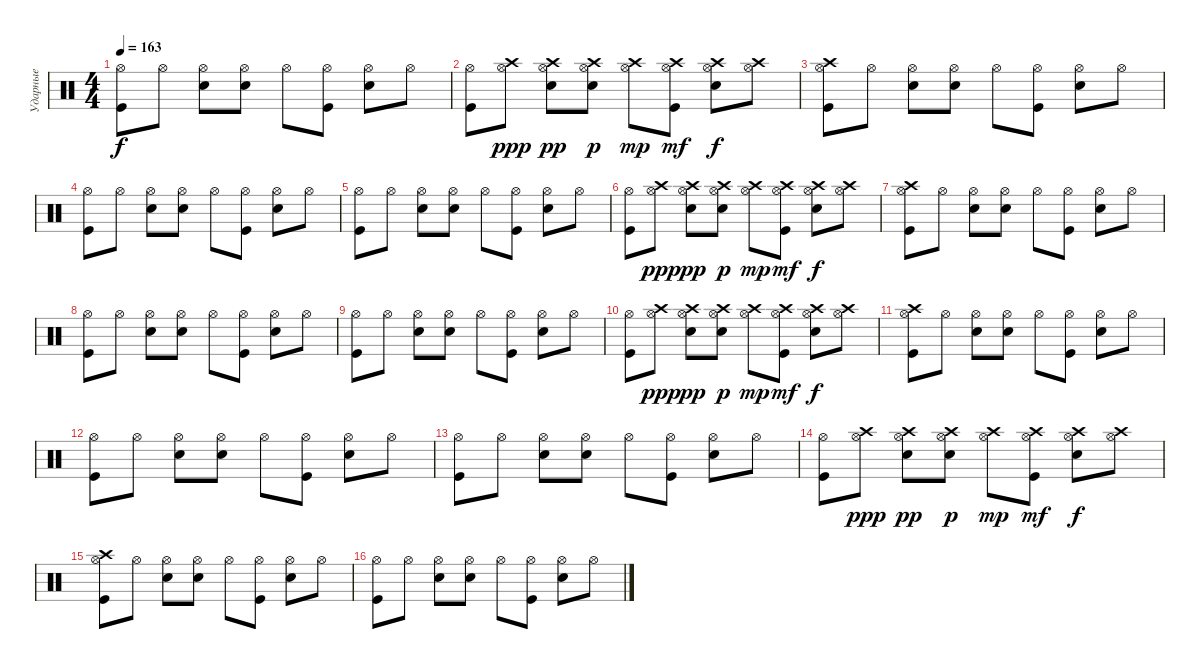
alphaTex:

\track ("Ударные" "Ударные") {instrument percussion}
\staff {score}
\articulation defaults
\ts (4 4)
\tempo 163
\clef neutral
\ks c
("Kick (hit)" "Hi-Hat (open)").8{dy f} "Hi-Hat (open)".8 ("Hi-Hat (open)" "Snare (hit) 2").8 ("Hi-Hat (open)" "Snare (hit) 2").8 "Hi-Hat (open)".8 ("Kick (hit)" "Hi-Hat (open)").8 ("Hi-Hat (open)" "Snare (hit) 2").8 "Hi-Hat (open)".8 |
("Kick (hit)" "Hi-Hat (open)").8 ("Hi-Hat (open)" "Crash high (hit)").8{dy ppp} ("Hi-Hat (open)" "Snare (hit) 2" "Crash high (hit)").8{dy pp} ("Hi-Hat (open)" "Snare (hit) 2" "Crash high (hit)").8{dy p} ("Hi-Hat (open)" "Crash high (hit)").8{dy mp} ("Kick (hit)" "Hi-Hat (open)" "Crash high (hit)").8{dy mf} ("Hi-Hat (open)" "Snare (hit) 2" "Crash high (hit)").8{dy f} ("Hi-Hat (open)" "Crash high (hit)").8 |
("Kick (hit)" "Hi-Hat (open)" "Crash high (hit)").8 "Hi-Hat (open)".8 ("Hi-Hat (open)" "Snare (hit) 2").8 ("Hi-Hat (open)" "Snare (hit) 2").8 "Hi-Hat (open)".8 ("Kick (hit)" "Hi-Hat (open)").8 ("Hi-Hat (open)" "Snare (hit) 2").8 "Hi-Hat (open)".8 |
("Kick (hit)" "Hi-Hat (open)").8 "Hi-Hat (open)".8 ("Hi-Hat (open)" "Snare (hit) 2").8 ("Hi-Hat (open)" "Snare (hit) 2").8 "Hi-Hat (open)".8 ("Kick (hit)" "Hi-Hat (open)").8 ("Hi-Hat (open)" "Snare (hit) 2").8 "Hi-Hat (open)".8 |
("Kick (hit)" "Hi-Hat (open)").8 "Hi-Hat (open)".8 ("Hi-Hat (open)" "Snare (hit) 2").8 ("Hi-Hat (open)" "Snare (hit) 2").8 "Hi-Hat (open)".8 ("Kick (hit)" "Hi-Hat (open)").8 ("Hi-Hat (open)" "Snare (hit) 2").8 "Hi-Hat (open)".8 |
("Kick (hit)" "Hi-Hat (open)").8 ("Hi-Hat (open)" "Crash high (hit)").8{dy ppp} ("Hi-Hat (open)" "Snare (hit) 2" "Crash high (hit)").8{dy pp} ("Hi-Hat (open)" "Snare (hit) 2" "Crash high (hit)").8{dy p} ("Hi-Hat (open)" "Crash high (hit)").8{dy mp} ("Kick (hit)" "Hi-Hat (open)" "Crash high (hit)").8{dy mf} ("Hi-Hat (open)" "Snare (hit) 2" "Crash high (hit)").8{dy f} ("Hi-Hat (open)" "Crash high (hit)").8 |
("Kick (hit)" "Hi-Hat (open)" "Crash high (hit)").8 "Hi-Hat (open)".8 ("Hi-Hat (open)" "Snare (hit) 2").8 ("Hi-Hat (open)" "Snare (hit) 2").8 "Hi-Hat (open)".8 ("Kick (hit)" "Hi-Hat (open)").8 ("Hi-Hat (open)" "Snare (hit) 2").8 "Hi-Hat (open)".8 |
("Kick (hit)" "Hi-Hat (open)").8 "Hi-Hat (open)".8 ("Hi-Hat (open)" "Snare (hit) 2").8 ("Hi-Hat (open)" "Snare (hit) 2").8 "Hi-Hat (open)".8 ("Kick (hit)" "Hi-Hat (open)").8 ("Hi-Hat (open)" "Snare (hit) 2").8 "Hi-Hat (open)".8 |
("Kick (hit)" "Hi-Hat (open)").8 "Hi-Hat (open)".8 ("Hi-Hat (open)" "Snare (hit) 2").8 ("Hi-Hat (open)" "Snare (hit) 2").8 "Hi-Hat (open)".8 ("Kick (hit)" "Hi-Hat (open)").8 ("Hi-Hat (open)" "Snare (hit) 2").8 "Hi-Hat (open)".8 |
("Kick (hit)" "Hi-Hat (open)").8 ("Hi-Hat (open)" "Crash high (hit)").8{dy ppp} ("Hi-Hat (open)" "Snare (hit) 2" "Crash high (hit)").8{dy pp} ("Hi-Hat (open)" "Snare (hit) 2" "Crash high (hit)").8{dy p} ("Hi-Hat (open)" "Crash high (hit)").8{dy mp} ("Kick (hit)" "Hi-Hat (open)" "Crash high (hit)").8{dy mf} ("Hi-Hat (open)" "Snare (hit) 2" "Crash high (hit)").8{dy f} ("Hi-Hat (open)" "Crash high (hit)").8 |
("Kick (hit)" "Hi-Hat (open)" "Crash high (hit)").8 "Hi-Hat (open)".8 ("Hi-Hat (open)" "Snare (hit) 2").8 ("Hi-Hat (open)" "Snare (hit) 2").8 "Hi-Hat (open)".8 ("Kick (hit)" "Hi-Hat (open)").8 ("Hi-Hat (open)" "Snare (hit) 2").8 "Hi-Hat (open)".8 |
("Kick (hit)" "Hi-Hat (open)").8 "Hi-Hat (open)".8 ("Hi-Hat (open)" "Snare (hit) 2").8 ("Hi-Hat (open)" "Snare (hit) 2").8 "Hi-Hat (open)".8 ("Kick (hit)" "Hi-Hat (open)").8 ("Hi-Hat (open)" "Snare (hit) 2").8 "Hi-Hat (open)".8 |
("Kick (hit)" "Hi-Hat (open)").8 "Hi-Hat (open)".8 ("Hi-Hat (open)" "Snare (hit) 2").8 ("Hi-Hat (open)" "Snare (hit) 2").8 "Hi-Hat (open)".8 ("Kick (hit)" "Hi-Hat (open)").8 ("Hi-Hat (open)" "Snare (hit) 2").8 "Hi-Hat (open)".8 |
("Kick (hit)" "Hi-Hat (open)").8 ("Hi-Hat (open)" "Crash high (hit)").8{dy ppp} ("Hi-Hat (open)" "Snare (hit) 2" "Crash high (hit)").8{dy pp} ("Hi-Hat (open)" "Snare (hit) 2" "Crash high (hit)").8{dy p} ("Hi-Hat (open)" "Crash high (hit)").8{dy mp} ("Kick (hit)" "Hi-Hat (open)" "Crash high (hit)").8{dy mf} ("Hi-Hat (open)" "Snare (hit) 2" "Crash high (hit)").8{dy f} ("Hi-Hat (open)" "Crash high (hit)").8 |
("Kick (hit)" "Hi-Hat (open)" "Crash high (hit)").8 "Hi-Hat (open)".8 ("Hi-Hat (open)" "Snare (hit) 2").8 ("Hi-Hat (open)" "Snare (hit) 2").8 "Hi-Hat (open)".8 ("Kick (hit)" "Hi-Hat (open)").8 ("Hi-Hat (open)" "Snare (hit) 2").8 "Hi-Hat (open)".8 |
("Kick (hit)" "Hi-Hat (open)").8 "Hi-Hat (open)".8 ("Hi-Hat (open)" "Snare (hit) 2").8 ("Hi-Hat (open)" "Snare (hit) 2").8 "Hi-Hat (open)".8 ("Kick (hit)" "Hi-Hat (open)").8 ("Hi-Hat (open)" "Snare (hit) 2").8 "Hi-Hat (open)".8
